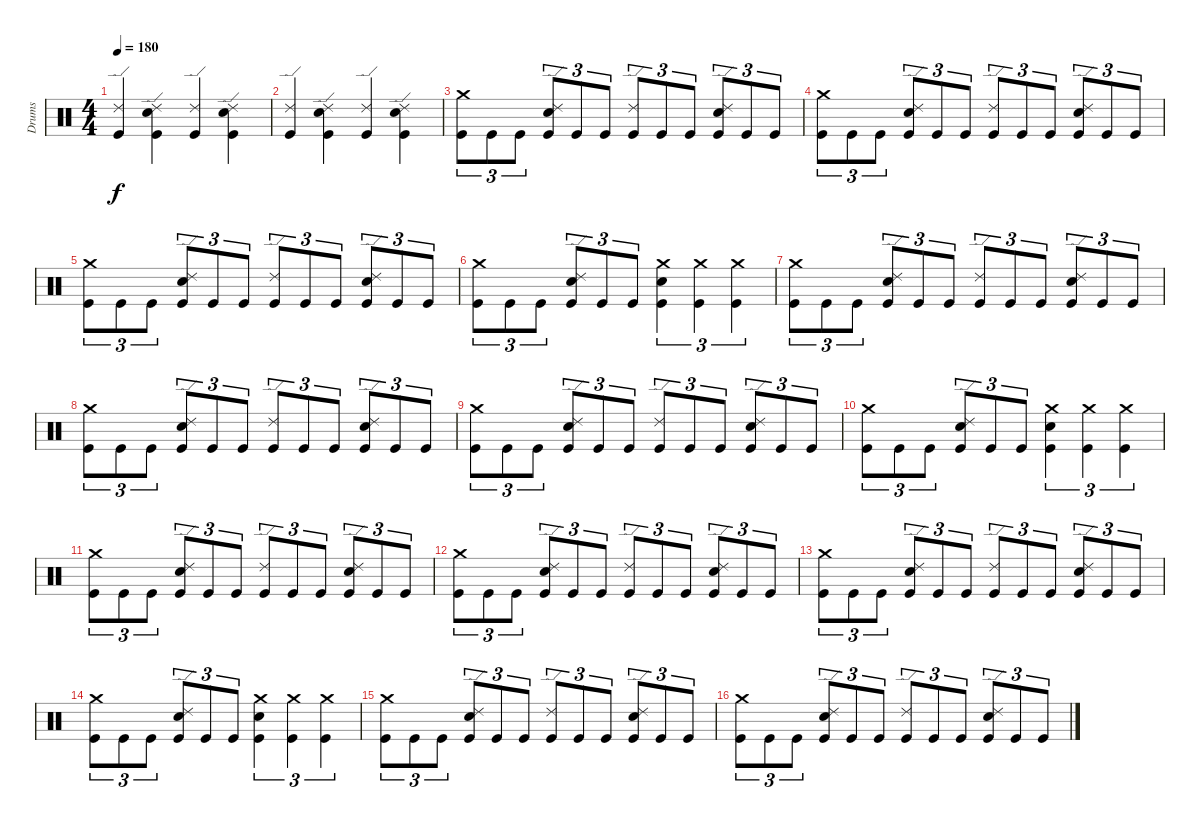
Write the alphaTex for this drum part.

\track ("Drums" "Drums") {instrument percussion}
\staff {score}
\articulation defaults
\ts (4 4)
\tempo 180
\clef neutral
\ks c
("Ride (edge) 2" "Kick (hit)").4{dy f} ("Ride (edge) 2" "Snare (hit) 2" "Kick (hit)").4 ("Ride (edge) 2" "Kick (hit)").4 ("Ride (edge) 2" "Snare (hit) 2" "Kick (hit)").4 |
("Ride (edge) 2" "Kick (hit)").4 ("Ride (edge) 2" "Snare (hit) 2" "Kick (hit)").4 ("Ride (edge) 2" "Kick (hit)").4 ("Ride (edge) 2" "Snare (hit) 2" "Kick (hit)").4 |
("Crash medium (hit)" "Kick (hit)").8{tu (3 2)} "Kick (hit)".8{tu (3 2)} "Kick (hit)".8{tu (3 2)} ("Ride (edge) 2" "Snare (hit) 2" "Kick (hit)").8{tu (3 2)} "Kick (hit)".8{tu (3 2)} "Kick (hit)".8{tu (3 2)} ("Ride (edge) 2" "Kick (hit)").8{tu (3 2)} "Kick (hit)".8{tu (3 2)} "Kick (hit)".8{tu (3 2)} ("Ride (edge) 2" "Snare (hit) 2" "Kick (hit)").8{tu (3 2)} "Kick (hit)".8{tu (3 2)} "Kick (hit)".8{tu (3 2)} |
("Crash medium (hit)" "Kick (hit)").8{tu (3 2)} "Kick (hit)".8{tu (3 2)} "Kick (hit)".8{tu (3 2)} ("Ride (edge) 2" "Snare (hit) 2" "Kick (hit)").8{tu (3 2)} "Kick (hit)".8{tu (3 2)} "Kick (hit)".8{tu (3 2)} ("Ride (edge) 2" "Kick (hit)").8{tu (3 2)} "Kick (hit)".8{tu (3 2)} "Kick (hit)".8{tu (3 2)} ("Ride (edge) 2" "Snare (hit) 2" "Kick (hit)").8{tu (3 2)} "Kick (hit)".8{tu (3 2)} "Kick (hit)".8{tu (3 2)} |
("Crash medium (hit)" "Kick (hit)").8{tu (3 2)} "Kick (hit)".8{tu (3 2)} "Kick (hit)".8{tu (3 2)} ("Ride (edge) 2" "Snare (hit) 2" "Kick (hit)").8{tu (3 2)} "Kick (hit)".8{tu (3 2)} "Kick (hit)".8{tu (3 2)} ("Ride (edge) 2" "Kick (hit)").8{tu (3 2)} "Kick (hit)".8{tu (3 2)} "Kick (hit)".8{tu (3 2)} ("Ride (edge) 2" "Snare (hit) 2" "Kick (hit)").8{tu (3 2)} "Kick (hit)".8{tu (3 2)} "Kick (hit)".8{tu (3 2)} |
("Crash medium (hit)" "Kick (hit)").8{tu (3 2)} "Kick (hit)".8{tu (3 2)} "Kick (hit)".8{tu (3 2)} ("Ride (edge) 2" "Snare (hit) 2" "Kick (hit)").8{tu (3 2)} "Kick (hit)".8{tu (3 2)} "Kick (hit)".8{tu (3 2)} ("Crash medium (hit)" "Snare (hit) 2" "Kick (hit)").4{tu (3 2)} ("Crash medium (hit)" "Kick (hit)").4{tu (3 2)} ("Crash medium (hit)" "Kick (hit)").4{tu (3 2)} |
("Crash medium (hit)" "Kick (hit)").8{tu (3 2)} "Kick (hit)".8{tu (3 2)} "Kick (hit)".8{tu (3 2)} ("Ride (edge) 2" "Snare (hit) 2" "Kick (hit)").8{tu (3 2)} "Kick (hit)".8{tu (3 2)} "Kick (hit)".8{tu (3 2)} ("Ride (edge) 2" "Kick (hit)").8{tu (3 2)} "Kick (hit)".8{tu (3 2)} "Kick (hit)".8{tu (3 2)} ("Ride (edge) 2" "Snare (hit) 2" "Kick (hit)").8{tu (3 2)} "Kick (hit)".8{tu (3 2)} "Kick (hit)".8{tu (3 2)} |
("Crash medium (hit)" "Kick (hit)").8{tu (3 2)} "Kick (hit)".8{tu (3 2)} "Kick (hit)".8{tu (3 2)} ("Ride (edge) 2" "Snare (hit) 2" "Kick (hit)").8{tu (3 2)} "Kick (hit)".8{tu (3 2)} "Kick (hit)".8{tu (3 2)} ("Ride (edge) 2" "Kick (hit)").8{tu (3 2)} "Kick (hit)".8{tu (3 2)} "Kick (hit)".8{tu (3 2)} ("Ride (edge) 2" "Snare (hit) 2" "Kick (hit)").8{tu (3 2)} "Kick (hit)".8{tu (3 2)} "Kick (hit)".8{tu (3 2)} |
("Crash medium (hit)" "Kick (hit)").8{tu (3 2)} "Kick (hit)".8{tu (3 2)} "Kick (hit)".8{tu (3 2)} ("Ride (edge) 2" "Snare (hit) 2" "Kick (hit)").8{tu (3 2)} "Kick (hit)".8{tu (3 2)} "Kick (hit)".8{tu (3 2)} ("Ride (edge) 2" "Kick (hit)").8{tu (3 2)} "Kick (hit)".8{tu (3 2)} "Kick (hit)".8{tu (3 2)} ("Ride (edge) 2" "Snare (hit) 2" "Kick (hit)").8{tu (3 2)} "Kick (hit)".8{tu (3 2)} "Kick (hit)".8{tu (3 2)} |
("Crash medium (hit)" "Kick (hit)").8{tu (3 2)} "Kick (hit)".8{tu (3 2)} "Kick (hit)".8{tu (3 2)} ("Ride (edge) 2" "Snare (hit) 2" "Kick (hit)").8{tu (3 2)} "Kick (hit)".8{tu (3 2)} "Kick (hit)".8{tu (3 2)} ("Crash medium (hit)" "Snare (hit) 2" "Kick (hit)").4{tu (3 2)} ("Crash medium (hit)" "Kick (hit)").4{tu (3 2)} ("Crash medium (hit)" "Kick (hit)").4{tu (3 2)} |
("Crash medium (hit)" "Kick (hit)").8{tu (3 2)} "Kick (hit)".8{tu (3 2)} "Kick (hit)".8{tu (3 2)} ("Ride (edge) 2" "Snare (hit) 2" "Kick (hit)").8{tu (3 2)} "Kick (hit)".8{tu (3 2)} "Kick (hit)".8{tu (3 2)} ("Ride (edge) 2" "Kick (hit)").8{tu (3 2)} "Kick (hit)".8{tu (3 2)} "Kick (hit)".8{tu (3 2)} ("Ride (edge) 2" "Snare (hit) 2" "Kick (hit)").8{tu (3 2)} "Kick (hit)".8{tu (3 2)} "Kick (hit)".8{tu (3 2)} |
("Crash medium (hit)" "Kick (hit)").8{tu (3 2)} "Kick (hit)".8{tu (3 2)} "Kick (hit)".8{tu (3 2)} ("Ride (edge) 2" "Snare (hit) 2" "Kick (hit)").8{tu (3 2)} "Kick (hit)".8{tu (3 2)} "Kick (hit)".8{tu (3 2)} ("Ride (edge) 2" "Kick (hit)").8{tu (3 2)} "Kick (hit)".8{tu (3 2)} "Kick (hit)".8{tu (3 2)} ("Ride (edge) 2" "Snare (hit) 2" "Kick (hit)").8{tu (3 2)} "Kick (hit)".8{tu (3 2)} "Kick (hit)".8{tu (3 2)} |
("Crash medium (hit)" "Kick (hit)").8{tu (3 2)} "Kick (hit)".8{tu (3 2)} "Kick (hit)".8{tu (3 2)} ("Ride (edge) 2" "Snare (hit) 2" "Kick (hit)").8{tu (3 2)} "Kick (hit)".8{tu (3 2)} "Kick (hit)".8{tu (3 2)} ("Ride (edge) 2" "Kick (hit)").8{tu (3 2)} "Kick (hit)".8{tu (3 2)} "Kick (hit)".8{tu (3 2)} ("Ride (edge) 2" "Snare (hit) 2" "Kick (hit)").8{tu (3 2)} "Kick (hit)".8{tu (3 2)} "Kick (hit)".8{tu (3 2)} |
("Crash medium (hit)" "Kick (hit)").8{tu (3 2)} "Kick (hit)".8{tu (3 2)} "Kick (hit)".8{tu (3 2)} ("Ride (edge) 2" "Snare (hit) 2" "Kick (hit)").8{tu (3 2)} "Kick (hit)".8{tu (3 2)} "Kick (hit)".8{tu (3 2)} ("Crash medium (hit)" "Snare (hit) 2" "Kick (hit)").4{tu (3 2)} ("Crash medium (hit)" "Kick (hit)").4{tu (3 2)} ("Crash medium (hit)" "Kick (hit)").4{tu (3 2)} |
("Crash medium (hit)" "Kick (hit)").8{tu (3 2)} "Kick (hit)".8{tu (3 2)} "Kick (hit)".8{tu (3 2)} ("Ride (edge) 2" "Snare (hit) 2" "Kick (hit)").8{tu (3 2)} "Kick (hit)".8{tu (3 2)} "Kick (hit)".8{tu (3 2)} ("Ride (edge) 2" "Kick (hit)").8{tu (3 2)} "Kick (hit)".8{tu (3 2)} "Kick (hit)".8{tu (3 2)} ("Ride (edge) 2" "Snare (hit) 2" "Kick (hit)").8{tu (3 2)} "Kick (hit)".8{tu (3 2)} "Kick (hit)".8{tu (3 2)} |
("Crash medium (hit)" "Kick (hit)").8{tu (3 2)} "Kick (hit)".8{tu (3 2)} "Kick (hit)".8{tu (3 2)} ("Ride (edge) 2" "Snare (hit) 2" "Kick (hit)").8{tu (3 2)} "Kick (hit)".8{tu (3 2)} "Kick (hit)".8{tu (3 2)} ("Ride (edge) 2" "Kick (hit)").8{tu (3 2)} "Kick (hit)".8{tu (3 2)} "Kick (hit)".8{tu (3 2)} ("Ride (edge) 2" "Snare (hit) 2" "Kick (hit)").8{tu (3 2)} "Kick (hit)".8{tu (3 2)} "Kick (hit)".8{tu (3 2)}
